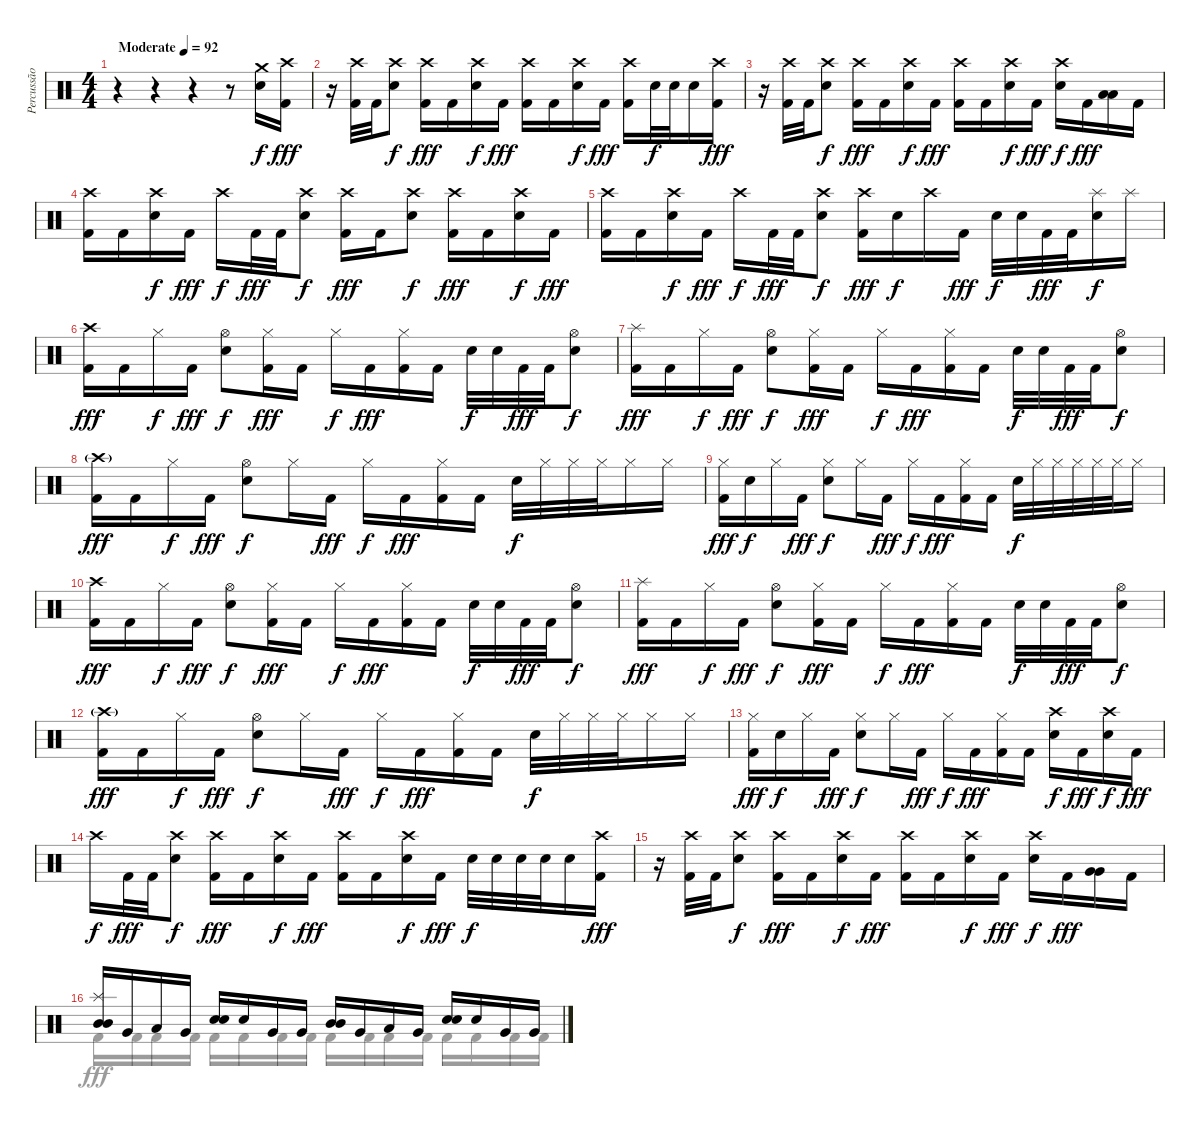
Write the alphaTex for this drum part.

\track ("Percussão" "Percussão") {instrument percussion}
\staff {score}
\articulation defaults
\voice
\ts (4 4)
\tempo (92 "Moderate")
\clef neutral
\ks c
r.4{dy f} r.4 r.4 r.8 ("Crash medium (hit)" "Electric Snare (hit)").16 ("Crash high (hit)" "Kick (hit) 2").16{dy fff} |
r.16 ("Crash high (hit)" "Kick (hit) 2").32 "Kick (hit) 2".32 ("Crash high (hit)" "Electric Snare (hit)").8{dy f} ("Crash high (hit)" "Kick (hit) 2").16{dy fff} "Kick (hit) 2".16 ("Crash high (hit)" "Electric Snare (hit)").16{dy f} "Kick (hit) 2".16{dy fff} ("Crash high (hit)" "Kick (hit) 2").16 "Kick (hit) 2".16 ("Crash high (hit)" "Electric Snare (hit)").16{dy f} "Kick (hit) 2".16{dy fff} ("Crash high (hit)" "Kick (hit) 2").16 "Electric Snare (hit)".32{dy f} "Electric Snare (hit)".32 "Electric Snare (hit)".16 ("Crash high (hit)" "Kick (hit) 2").16{dy fff} |
r.16 ("Crash high (hit)" "Kick (hit) 2").32 "Kick (hit) 2".32 ("Crash high (hit)" "Electric Snare (hit)").8{dy f} ("Crash high (hit)" "Kick (hit) 2").16{dy fff} "Kick (hit) 2".16 ("Crash high (hit)" "Electric Snare (hit)").16{dy f} "Kick (hit) 2".16{dy fff} ("Crash high (hit)" "Kick (hit) 2").16 "Kick (hit) 2".16 ("Crash high (hit)" "Electric Snare (hit)").16{dy f} "Kick (hit) 2".16{dy fff} ("Crash high (hit)" "Electric Snare (hit)").16{dy f} "Kick (hit) 2".16{dy fff} ("Low Tom (hit)" "Low Tom (hit)").16{bd 120 volume 16} "Kick (hit) 2".16{volume 11} |
("Crash high (hit)" "Kick (hit) 2").16 "Kick (hit) 2".16 ("Crash high (hit)" "Electric Snare (hit)").16{dy f} "Kick (hit) 2".16{dy fff} "Crash high (hit)".16{dy f} "Kick (hit) 2".32{dy fff} "Kick (hit) 2".32 ("Crash high (hit)" "Electric Snare (hit)").8{dy f} ("Crash high (hit)" "Kick (hit) 2").16{dy fff} "Kick (hit) 2".16 ("Crash high (hit)" "Electric Snare (hit)").8{dy f} ("Crash high (hit)" "Kick (hit) 2").16{dy fff} "Kick (hit) 2".16 ("Crash high (hit)" "Electric Snare (hit)").16{dy f} "Kick (hit) 2".16{dy fff} |
("Crash high (hit)" "Kick (hit) 2").16 "Kick (hit) 2".16 ("Crash high (hit)" "Electric Snare (hit)").16{dy f} "Kick (hit) 2".16{dy fff} "Crash high (hit)".16{dy f} "Kick (hit) 2".32{dy fff} "Kick (hit) 2".32 ("Crash high (hit)" "Electric Snare (hit)").8{dy f} ("Crash high (hit)" "Kick (hit) 2").16{dy fff} "Electric Snare (hit)".16{dy f} "Crash high (hit)".16 "Kick (hit) 2".16{dy fff} "Electric Snare (hit)".32{dy f} "Electric Snare (hit)".32 "Kick (hit) 2".32{dy fff} "Kick (hit) 2".32 ("Splash (hit)" "Electric Snare (hit)").16{dy f} "Splash (hit)".16 |
("Crash high (hit)" "Kick (hit) 2").16{dy fff} "Kick (hit) 2".16 "Hi-Hat (closed)".16{dy f} "Kick (hit) 2".16{dy fff} ("Hi-Hat (open)" "Electric Snare (hit)").8{dy f} ("Hi-Hat (closed)" "Kick (hit) 2").16{dy fff} "Kick (hit) 2".16 "Hi-Hat (closed)".16{dy f} "Kick (hit) 2".16{dy fff} ("Hi-Hat (closed)" "Kick (hit) 2").16 "Kick (hit) 2".16 "Electric Snare (hit)".32{dy f} "Electric Snare (hit)".32 "Kick (hit) 2".32{dy fff} "Kick (hit) 2".32 ("Hi-Hat (open)" "Electric Snare (hit)").8{dy f} |
("Splash (hit)" "Kick (hit) 2").16{dy fff} "Kick (hit) 2".16 "Hi-Hat (closed)".16{dy f} "Kick (hit) 2".16{dy fff} ("Hi-Hat (open)" "Electric Snare (hit)").8{dy f} ("Hi-Hat (closed)" "Kick (hit) 2").16{dy fff} "Kick (hit) 2".16 "Hi-Hat (closed)".16{dy f} "Kick (hit) 2".16{dy fff} ("Hi-Hat (closed)" "Kick (hit) 2").16 "Kick (hit) 2".16 "Electric Snare (hit)".32{dy f} "Electric Snare (hit)".32 "Kick (hit) 2".32{dy fff} "Kick (hit) 2".32 ("Hi-Hat (open)" "Electric Snare (hit)").8{dy f} |
("Crash high (hit)"{g} "Kick (hit) 2").16{dy fff} "Kick (hit) 2".16 "Hi-Hat (closed)".16{dy f} "Kick (hit) 2".16{dy fff} ("Hi-Hat (open)" "Electric Snare (hit)").8{dy f} "Hi-Hat (closed)".16 "Kick (hit) 2".16{dy fff} "Hi-Hat (closed)".16{dy f} "Kick (hit) 2".16{dy fff} ("Hi-Hat (closed)" "Kick (hit) 2").16 "Kick (hit) 2".16 "Electric Snare (hit)".32{dy f} "Hi-Hat (closed)".32 "Hi-Hat (closed)".32 "Hi-Hat (closed)".32 "Hi-Hat (closed)".16 "Hi-Hat (closed)".16 |
("Hi-Hat (closed)" "Kick (hit) 2").16{dy fff} "Electric Snare (hit)".16{dy f} "Hi-Hat (closed)".16 "Kick (hit) 2".16{dy fff} ("Hi-Hat (closed)" "Electric Snare (hit)").8{dy f} "Hi-Hat (closed)".16 "Kick (hit) 2".16{dy fff} "Hi-Hat (closed)".16{dy f} "Kick (hit) 2".16{dy fff} ("Hi-Hat (closed)" "Kick (hit) 2").16 "Kick (hit) 2".16 "Electric Snare (hit)".32{dy f} "Hi-Hat (closed)".32 "Hi-Hat (closed)".32 "Hi-Hat (closed)".32 "Hi-Hat (closed)".32 "Hi-Hat (closed)".32 "Hi-Hat (closed)".16 |
("Crash high (hit)" "Kick (hit) 2").16{dy fff} "Kick (hit) 2".16 "Hi-Hat (closed)".16{dy f} "Kick (hit) 2".16{dy fff} ("Hi-Hat (open)" "Electric Snare (hit)").8{dy f} ("Hi-Hat (closed)" "Kick (hit) 2").16{dy fff} "Kick (hit) 2".16 "Hi-Hat (closed)".16{dy f} "Kick (hit) 2".16{dy fff} ("Hi-Hat (closed)" "Kick (hit) 2").16 "Kick (hit) 2".16 "Electric Snare (hit)".32{dy f} "Electric Snare (hit)".32 "Kick (hit) 2".32{dy fff} "Kick (hit) 2".32 ("Hi-Hat (open)" "Electric Snare (hit)").8{dy f} |
("Splash (hit)" "Kick (hit) 2").16{dy fff} "Kick (hit) 2".16 "Hi-Hat (closed)".16{dy f} "Kick (hit) 2".16{dy fff} ("Hi-Hat (open)" "Electric Snare (hit)").8{dy f} ("Hi-Hat (closed)" "Kick (hit) 2").16{dy fff} "Kick (hit) 2".16 "Hi-Hat (closed)".16{dy f} "Kick (hit) 2".16{dy fff} ("Hi-Hat (closed)" "Kick (hit) 2").16 "Kick (hit) 2".16 "Electric Snare (hit)".32{dy f} "Electric Snare (hit)".32 "Kick (hit) 2".32{dy fff} "Kick (hit) 2".32 ("Hi-Hat (open)" "Electric Snare (hit)").8{dy f} |
("Crash high (hit)"{g} "Kick (hit) 2").16{dy fff} "Kick (hit) 2".16 "Hi-Hat (closed)".16{dy f} "Kick (hit) 2".16{dy fff} ("Hi-Hat (open)" "Electric Snare (hit)").8{dy f} "Hi-Hat (closed)".16 "Kick (hit) 2".16{dy fff} "Hi-Hat (closed)".16{dy f} "Kick (hit) 2".16{dy fff} ("Hi-Hat (closed)" "Kick (hit) 2").16 "Kick (hit) 2".16 "Electric Snare (hit)".32{dy f} "Hi-Hat (closed)".32 "Hi-Hat (closed)".32 "Hi-Hat (closed)".32 "Hi-Hat (closed)".16 "Hi-Hat (closed)".16 |
("Hi-Hat (closed)" "Kick (hit) 2").16{dy fff} "Electric Snare (hit)".16{dy f} "Hi-Hat (closed)".16 "Kick (hit) 2".16{dy fff} ("Hi-Hat (closed)" "Electric Snare (hit)").8{dy f} "Hi-Hat (closed)".16 "Kick (hit) 2".16{dy fff} "Hi-Hat (closed)".16{dy f} "Kick (hit) 2".16{dy fff} ("Hi-Hat (closed)" "Kick (hit) 2").16 "Kick (hit) 2".16 ("Crash high (hit)" "Electric Snare (hit)").16{dy f} "Kick (hit) 2".16{dy fff} ("Crash high (hit)" "Electric Snare (hit)").16{dy f} "Kick (hit) 2".16{dy fff} |
"Crash high (hit)".16{dy f} "Kick (hit) 2".32{dy fff} "Kick (hit) 2".32 ("Crash high (hit)" "Electric Snare (hit)").8{dy f} ("Crash high (hit)" "Kick (hit) 2").16{dy fff} "Kick (hit) 2".16 ("Crash high (hit)" "Electric Snare (hit)").16{dy f} "Kick (hit) 2".16{dy fff} ("Crash high (hit)" "Kick (hit) 2").16 "Kick (hit) 2".16 ("Crash high (hit)" "Electric Snare (hit)").16{dy f} "Kick (hit) 2".16{dy fff} "Electric Snare (hit)".32{dy f} "Electric Snare (hit)".32 "Electric Snare (hit)".32 "Electric Snare (hit)".32 "Electric Snare (hit)".16 ("Crash high (hit)" "Kick (hit) 2").16{dy fff} |
r.16 ("Crash high (hit)" "Kick (hit) 2").32 "Kick (hit) 2".32 ("Crash high (hit)" "Electric Snare (hit)").8{dy f} ("Crash high (hit)" "Kick (hit) 2").16{dy fff} "Kick (hit) 2".16 ("Crash high (hit)" "Electric Snare (hit)").16{dy f} "Kick (hit) 2".16{dy fff} ("Crash high (hit)" "Kick (hit) 2").16 "Kick (hit) 2".16 ("Crash high (hit)" "Electric Snare (hit)").16{dy f} "Kick (hit) 2".16{dy fff} ("Crash high (hit)" "Electric Snare (hit)").16{dy f} "Kick (hit) 2".16{dy fff} ("Very Low Tom (hit)" "Very Low Tom (hit)").16{bd 120 volume 16} "Kick (hit) 2".16{volume 11} |
("Splash (hit)" "Mid Tom (hit)" "Mid Tom (hit)").16{bd 60 volume 16} "Very Low Tom (hit)".16 "Low Tom (hit)".16 "Very Low Tom (hit)".16 ("Electric Snare (hit)" "Electric Snare (hit)").16{bd 60} "Electric Snare (hit)".16 "Very Low Tom (hit)".16 "Very Low Tom (hit)".16 ("Mid Tom (hit)" "Mid Tom (hit)").16{bd 60} "Very Low Tom (hit)".16 "Low Tom (hit)".16 "Very Low Tom (hit)".16 ("Electric Snare (hit)" "Electric Snare (hit)").16{bd 60} "Electric Snare (hit)".16 "Very Low Tom (hit)".16 "Very Low Tom (hit)".16
\voice
\clef neutral
\ottava regular
\simile none
\ks c
|
|
|
|
|
|
|
|
|
|
|
|
|
|
|
"Kick (hit) 2".16 "Kick (hit) 2".16 "Kick (hit) 2".16 "Kick (hit) 2".16 "Kick (hit) 2".16 "Kick (hit) 2".16 "Kick (hit) 2".16 "Kick (hit) 2".16 "Kick (hit) 2".16 "Kick (hit) 2".16 "Kick (hit) 2".16 "Kick (hit) 2".16 "Kick (hit) 2".16 "Kick (hit) 2".16 "Kick (hit) 2".16 "Kick (hit) 2".16
